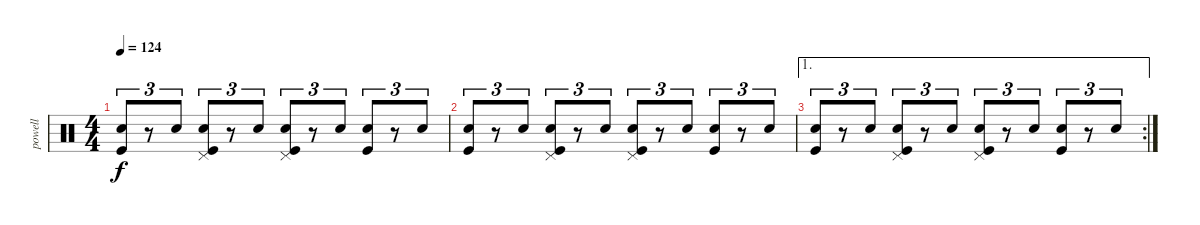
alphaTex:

\track ("powell" "powell") {instrument percussion}
\staff {score}
\articulation defaults
\ts (4 4)
\tempo 124
\clef neutral
\ks c
("Snare (hit) 2" "Kick (hit)").8{tu (3 2) dy f volume 9} r.8{tu (3 2)} "Snare (hit) 2".8{tu (3 2) volume 5} ("Snare (hit) 2" "Pedal Hi-Hat (hit)" "Kick (hit)").8{tu (3 2) volume 7} r.8{tu (3 2)} "Snare (hit) 2".8{tu (3 2) volume 8} ("Snare (hit) 2" "Pedal Hi-Hat (hit)" "Kick (hit)").8{tu (3 2)} r.8{tu (3 2)} "Snare (hit) 2".8{tu (3 2)} ("Snare (hit) 2" "Kick (hit)").8{tu (3 2)} r.8{tu (3 2)} "Snare (hit) 2".8{tu (3 2)} |
("Snare (hit) 2" "Kick (hit)").8{tu (3 2) volume 9} r.8{tu (3 2)} "Snare (hit) 2".8{tu (3 2) volume 5} ("Snare (hit) 2" "Pedal Hi-Hat (hit)" "Kick (hit)").8{tu (3 2) volume 7} r.8{tu (3 2)} "Snare (hit) 2".8{tu (3 2) volume 8} ("Snare (hit) 2" "Pedal Hi-Hat (hit)" "Kick (hit)").8{tu (3 2)} r.8{tu (3 2)} "Snare (hit) 2".8{tu (3 2)} ("Snare (hit) 2" "Kick (hit)").8{tu (3 2)} r.8{tu (3 2)} "Snare (hit) 2".8{tu (3 2)} |
\ae 1
\rc 2
("Snare (hit) 2" "Kick (hit)").8{tu (3 2) volume 9} r.8{tu (3 2)} "Snare (hit) 2".8{tu (3 2) volume 5} ("Snare (hit) 2" "Pedal Hi-Hat (hit)" "Kick (hit)").8{tu (3 2) volume 7} r.8{tu (3 2)} "Snare (hit) 2".8{tu (3 2) volume 8} ("Snare (hit) 2" "Pedal Hi-Hat (hit)" "Kick (hit)").8{tu (3 2)} r.8{tu (3 2)} "Snare (hit) 2".8{tu (3 2)} ("Snare (hit) 2" "Kick (hit)").8{tu (3 2)} r.8{tu (3 2)} "Snare (hit) 2".8{tu (3 2)}
